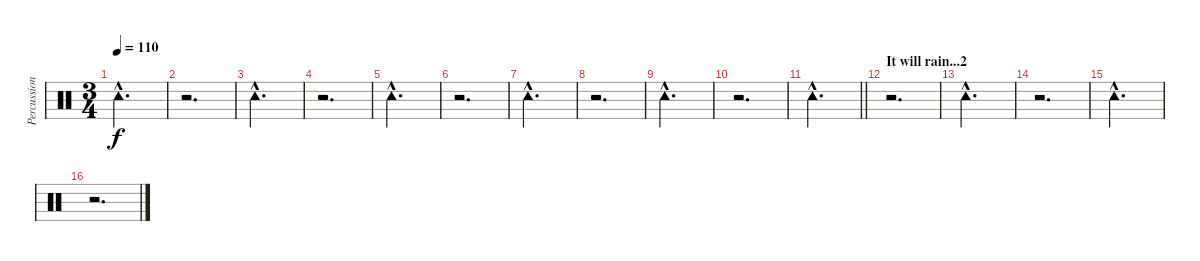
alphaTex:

\track ("Percussion" "Percussion") {instrument percussion}
\staff {score}
\articulation defaults
\ts (3 4)
\tempo 110
\clef neutral
\ks c "Tambourine (hit)"{hac}.2{d dy f}
|
r.2{d} |
"Tambourine (hit)"{hac}.2{d} |
r.2{d} |
"Tambourine (hit)"{hac}.2{d} |
r.2{d} |
"Tambourine (hit)"{hac}.2{d} |
r.2{d} |
"Tambourine (hit)"{hac}.2{d} |
r.2{d} |
\barLineRight lightlight "Tambourine (hit)"{hac}.2{d}
|
\section ("" "It will rain...2")
r.2{d} |
"Tambourine (hit)"{hac}.2{d} |
r.2{d} |
"Tambourine (hit)"{hac}.2{d} |
r.2{d}
